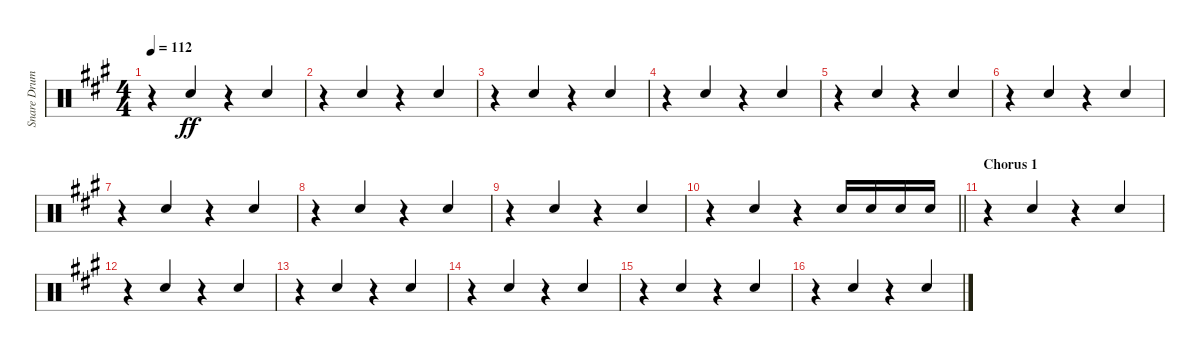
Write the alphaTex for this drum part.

\track ("Snare Drum" "Snare Drum") {instrument percussion}
\staff {score}
\articulation defaults
\ts (4 4)
\tempo 112
\clef neutral
\ks f#minor
r.4{dy ff} "Electric Snare (hit)".4{beam Up} r.4 "Electric Snare (hit)".4{beam Up} |
r.4 "Electric Snare (hit)".4{beam Up} r.4 "Electric Snare (hit)".4{beam Up} |
r.4 "Electric Snare (hit)".4{beam Up} r.4 "Electric Snare (hit)".4{beam Up} |
r.4 "Electric Snare (hit)".4{beam Up} r.4 "Electric Snare (hit)".4{beam Up} |
r.4 "Electric Snare (hit)".4{beam Up} r.4 "Electric Snare (hit)".4{beam Up} |
r.4 "Electric Snare (hit)".4{beam Up} r.4 "Electric Snare (hit)".4{beam Up} |
r.4 "Electric Snare (hit)".4{beam Up} r.4 "Electric Snare (hit)".4{beam Up} |
r.4 "Electric Snare (hit)".4{beam Up} r.4 "Electric Snare (hit)".4{beam Up} |
r.4 "Electric Snare (hit)".4{beam Up} r.4 "Electric Snare (hit)".4{beam Up} |
\barLineRight lightlight
r.4 "Electric Snare (hit)".4{beam Up} r.4 "Electric Snare (hit)".16{beam Up} "Electric Snare (hit)".16{beam Up} "Electric Snare (hit)".16{beam Up} "Electric Snare (hit)".16{beam Up} |
\section ("" "Chorus 1")
r.4 "Electric Snare (hit)".4{beam Up} r.4 "Electric Snare (hit)".4{beam Up} |
r.4 "Electric Snare (hit)".4{beam Up} r.4 "Electric Snare (hit)".4{beam Up} |
r.4 "Electric Snare (hit)".4{beam Up} r.4 "Electric Snare (hit)".4{beam Up} |
r.4 "Electric Snare (hit)".4{beam Up} r.4 "Electric Snare (hit)".4{beam Up} |
r.4 "Electric Snare (hit)".4{beam Up} r.4 "Electric Snare (hit)".4{beam Up} |
r.4 "Electric Snare (hit)".4{beam Up} r.4 "Electric Snare (hit)".4{beam Up}
